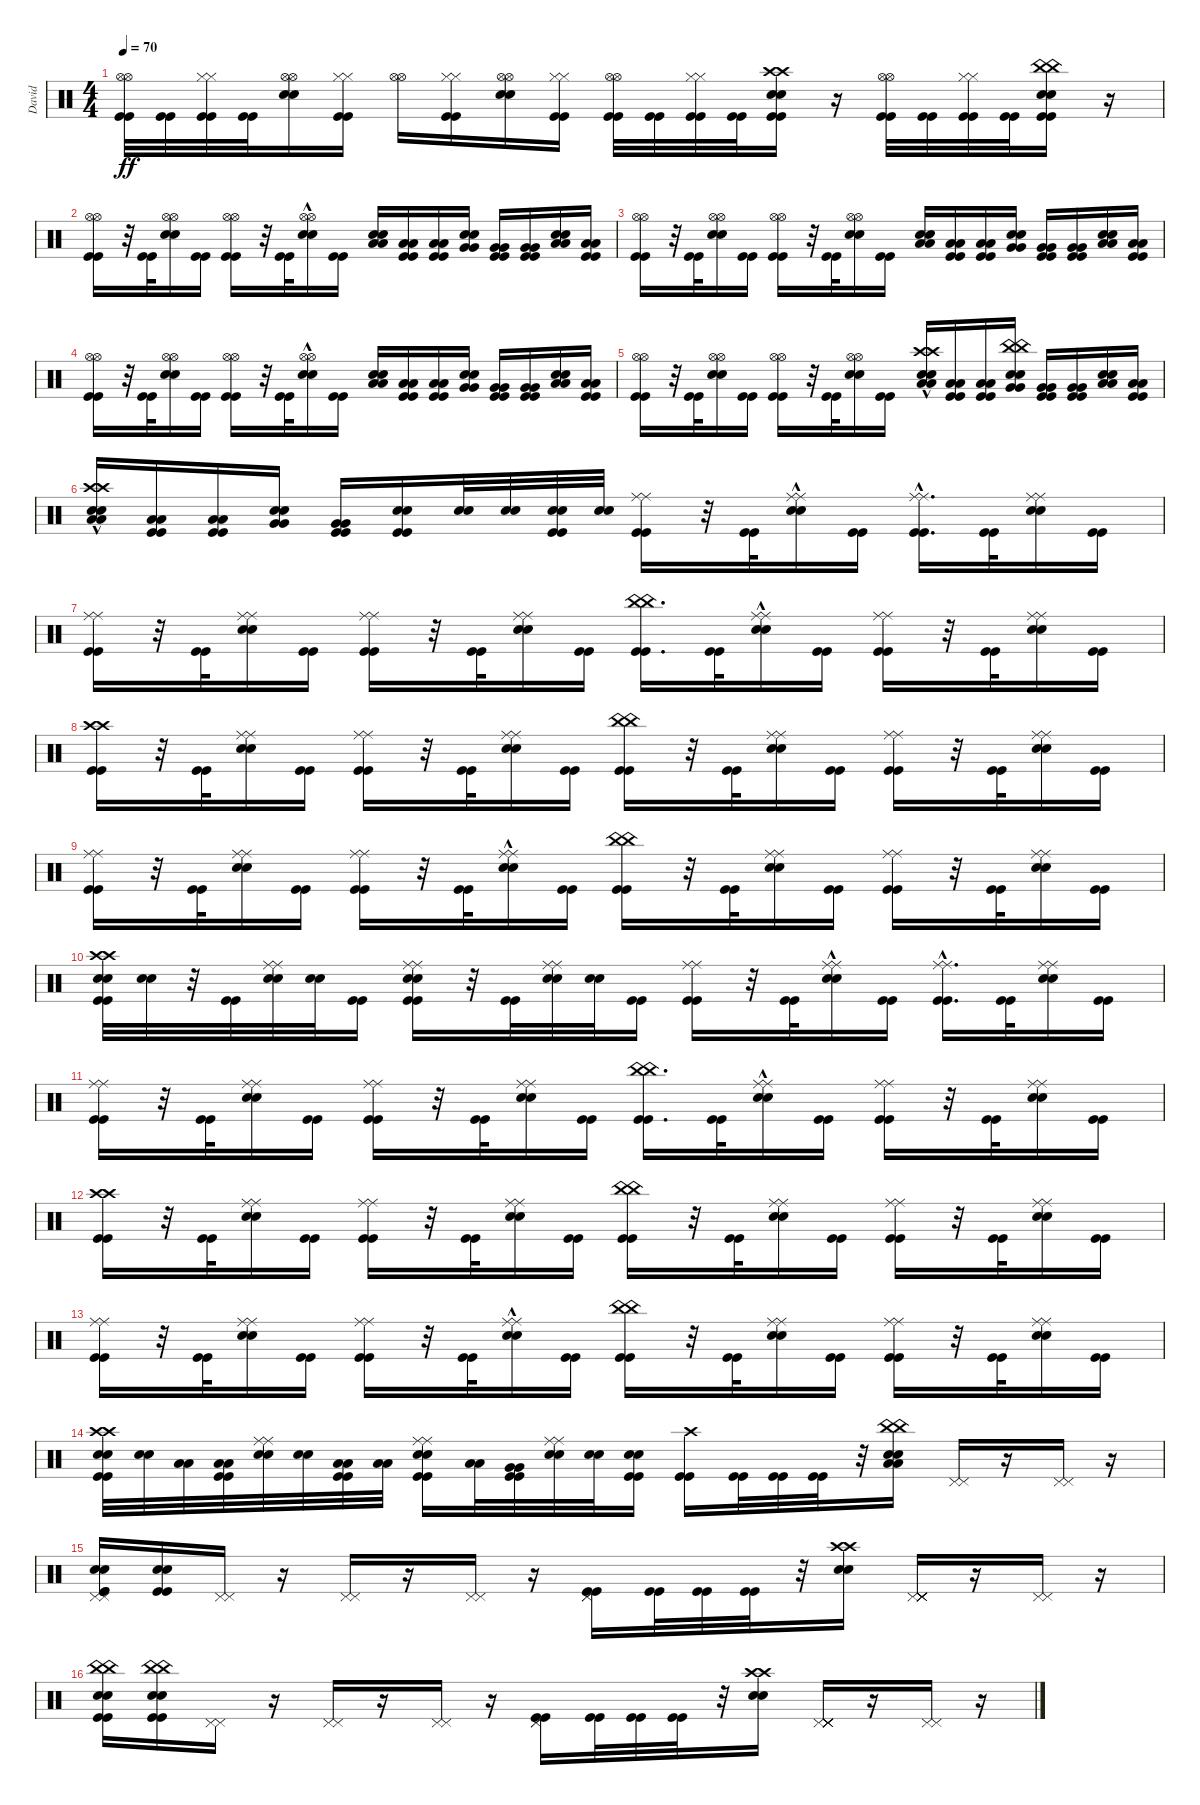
\track ("David" "David") {instrument percussion}
\staff {score}
\articulation defaults
\ts (4 4)
\tempo 70
\clef neutral
\ks c
("Kick (hit)" "Kick (hit)" "Hi-Hat (open)" "Hi-Hat (open)").32{dy ff} ("Kick (hit)" "Kick (hit)").32 ("Kick (hit)" "Kick (hit)" "Hi-Hat (closed)" "Hi-Hat (closed)").32 ("Kick (hit)" "Kick (hit)").32 ("Hi-Hat (open)" "Hi-Hat (open)" "Snare (hit) 2" "Snare (hit) 2").16 ("Kick (hit)" "Kick (hit)" "Hi-Hat (closed)" "Hi-Hat (closed)").16 ("Hi-Hat (open)" "Hi-Hat (open)").16 ("Kick (hit)" "Kick (hit)" "Hi-Hat (closed)" "Hi-Hat (closed)").16 ("Hi-Hat (open)" "Hi-Hat (open)" "Snare (hit) 2" "Snare (hit) 2").16 ("Hi-Hat (closed)" "Hi-Hat (closed)" "Kick (hit)" "Kick (hit)").16 ("Hi-Hat (open)" "Hi-Hat (open)" "Kick (hit)" "Kick (hit)").32 ("Kick (hit)" "Kick (hit)").32 ("Kick (hit)" "Kick (hit)" "Hi-Hat (closed)" "Hi-Hat (closed)").32 ("Kick (hit)" "Kick (hit)").32 ("Kick (hit)" "Kick (hit)" "Crash high (hit)" "Crash high (hit)" "Snare (hit) 2" "Snare (hit) 2").16 r.16 ("Hi-Hat (open)" "Hi-Hat (open)" "Kick (hit)" "Kick (hit)").32 ("Kick (hit)" "Kick (hit)").32 ("Hi-Hat (closed)" "Hi-Hat (closed)" "Kick (hit)" "Kick (hit)").32 ("Kick (hit)" "Kick (hit)").32 ("China (hit)" "China (hit)" "Kick (hit)" "Kick (hit)" "Snare (hit) 2" "Snare (hit) 2").16 r.16 |
("Kick (hit)" "Kick (hit)" "Hi-Hat (open)" "Hi-Hat (open)").16 r.32 ("Kick (hit)" "Kick (hit)").32 ("Snare (hit) 2" "Snare (hit) 2" "Hi-Hat (open)" "Hi-Hat (open)").16 ("Kick (hit)" "Kick (hit)").16 ("Kick (hit)" "Kick (hit)" "Hi-Hat (open)" "Hi-Hat (open)").16 r.32 ("Kick (hit)" "Kick (hit)").32 ("Snare (hit) 2" "Snare (hit) 2" "Hi-Hat (open)"{hac} "Hi-Hat (open)"{hac}).16 ("Kick (hit)" "Kick (hit)").16 ("Low Tom (hit)" "Low Tom (hit)" "Snare (hit) 2" "Snare (hit) 2").16 ("Low Tom (hit)" "Low Tom (hit)" "Kick (hit)" "Kick (hit)").16 ("Low Tom (hit)" "Low Tom (hit)" "Kick (hit)" "Kick (hit)").16 ("Very Low Tom (hit)" "Very Low Tom (hit)" "Snare (hit) 2" "Snare (hit) 2").16 ("Very Low Tom (hit)" "Very Low Tom (hit)" "Kick (hit)" "Kick (hit)").16 ("Very Low Tom (hit)" "Very Low Tom (hit)" "Kick (hit)" "Kick (hit)").16 ("Low Floor Tom (hit)" "Low Floor Tom (hit)" "Snare (hit) 2" "Snare (hit) 2").16 ("Low Floor Tom (hit)" "Low Floor Tom (hit)" "Kick (hit)" "Kick (hit)").16 |
("Kick (hit)" "Kick (hit)" "Hi-Hat (open)" "Hi-Hat (open)").16 r.32 ("Kick (hit)" "Kick (hit)").32 ("Snare (hit) 2" "Snare (hit) 2" "Hi-Hat (open)" "Hi-Hat (open)").16 ("Kick (hit)" "Kick (hit)").16 ("Kick (hit)" "Kick (hit)" "Hi-Hat (open)" "Hi-Hat (open)").16 r.32 ("Kick (hit)" "Kick (hit)").32 ("Snare (hit) 2" "Snare (hit) 2" "Hi-Hat (open)" "Hi-Hat (open)").16 ("Kick (hit)" "Kick (hit)").16 ("Low Tom (hit)" "Low Tom (hit)" "Snare (hit) 2" "Snare (hit) 2").16 ("Low Tom (hit)" "Low Tom (hit)" "Kick (hit)" "Kick (hit)").16 ("Low Tom (hit)" "Low Tom (hit)" "Kick (hit)" "Kick (hit)").16 ("Very Low Tom (hit)" "Very Low Tom (hit)" "Snare (hit) 2" "Snare (hit) 2").16 ("Very Low Tom (hit)" "Very Low Tom (hit)" "Kick (hit)" "Kick (hit)").16 ("Very Low Tom (hit)" "Very Low Tom (hit)" "Kick (hit)" "Kick (hit)").16 ("Low Floor Tom (hit)" "Low Floor Tom (hit)" "Snare (hit) 2" "Snare (hit) 2").16 ("Low Floor Tom (hit)" "Low Floor Tom (hit)" "Kick (hit)" "Kick (hit)").16 |
("Hi-Hat (open)" "Hi-Hat (open)" "Kick (hit)" "Kick (hit)").16 r.32 ("Kick (hit)" "Kick (hit)").32 ("Hi-Hat (open)" "Hi-Hat (open)" "Snare (hit) 2" "Snare (hit) 2").16 ("Kick (hit)" "Kick (hit)").16 ("Hi-Hat (open)" "Hi-Hat (open)" "Kick (hit)" "Kick (hit)").16 r.32 ("Kick (hit)" "Kick (hit)").32 ("Hi-Hat (open)"{hac} "Hi-Hat (open)"{hac} "Snare (hit) 2" "Snare (hit) 2").16 ("Kick (hit)" "Kick (hit)").16 ("Low Tom (hit)" "Low Tom (hit)" "Snare (hit) 2" "Snare (hit) 2").16 ("Low Tom (hit)" "Low Tom (hit)" "Kick (hit)" "Kick (hit)").16 ("Low Tom (hit)" "Low Tom (hit)" "Kick (hit)" "Kick (hit)").16 ("Very Low Tom (hit)" "Very Low Tom (hit)" "Snare (hit) 2" "Snare (hit) 2").16 ("Very Low Tom (hit)" "Very Low Tom (hit)" "Kick (hit)" "Kick (hit)").16 ("Very Low Tom (hit)" "Very Low Tom (hit)" "Kick (hit)" "Kick (hit)").16 ("Low Floor Tom (hit)" "Low Floor Tom (hit)" "Snare (hit) 2" "Snare (hit) 2").16 ("Low Floor Tom (hit)" "Low Floor Tom (hit)" "Kick (hit)" "Kick (hit)").16 |
("Hi-Hat (open)" "Hi-Hat (open)" "Kick (hit)" "Kick (hit)").16 r.32 ("Kick (hit)" "Kick (hit)").32 ("Hi-Hat (open)" "Hi-Hat (open)" "Snare (hit) 2" "Snare (hit) 2").16 ("Kick (hit)" "Kick (hit)").16 ("Hi-Hat (open)" "Hi-Hat (open)" "Kick (hit)" "Kick (hit)").16 r.32 ("Kick (hit)" "Kick (hit)").32 ("Hi-Hat (open)" "Hi-Hat (open)" "Snare (hit) 2" "Snare (hit) 2").16 ("Kick (hit)" "Kick (hit)").16 ("Crash high (hit)"{hac} "Crash high (hit)"{hac} "Low Tom (hit)" "Low Tom (hit)" "Snare (hit) 2" "Snare (hit) 2").16 ("Low Tom (hit)" "Low Tom (hit)" "Kick (hit)" "Kick (hit)").16 ("Low Tom (hit)" "Low Tom (hit)" "Kick (hit)" "Kick (hit)").16 ("China (hit)" "China (hit)" "Very Low Tom (hit)" "Very Low Tom (hit)" "Snare (hit) 2" "Snare (hit) 2").16 ("Very Low Tom (hit)" "Very Low Tom (hit)" "Kick (hit)" "Kick (hit)").16 ("Very Low Tom (hit)" "Very Low Tom (hit)" "Kick (hit)" "Kick (hit)").16 ("Low Floor Tom (hit)" "Low Floor Tom (hit)" "Snare (hit) 2" "Snare (hit) 2").16 ("Low Floor Tom (hit)" "Low Floor Tom (hit)" "Kick (hit)" "Kick (hit)").16 |
("Low Tom (hit)" "Low Tom (hit)" "Snare (hit) 2" "Snare (hit) 2" "Crash high (hit)"{hac} "Crash high (hit)"{hac}).16 ("Low Tom (hit)" "Low Tom (hit)" "Kick (hit)" "Kick (hit)").16 ("Low Tom (hit)" "Low Tom (hit)" "Kick (hit)" "Kick (hit)").16 ("Very Low Tom (hit)" "Very Low Tom (hit)" "Snare (hit) 2" "Snare (hit) 2").16 ("Very Low Tom (hit)" "Very Low Tom (hit)" "Kick (hit)" "Kick (hit)").16 ("Kick (hit)" "Kick (hit)" "Snare (hit) 2" "Snare (hit) 2").16 ("Snare (hit) 2" "Snare (hit) 2").32 ("Snare (hit) 2" "Snare (hit) 2").32 ("Kick (hit)" "Kick (hit)" "Snare (hit) 2" "Snare (hit) 2").32 ("Snare (hit) 2" "Snare (hit) 2").32 ("Kick (hit)" "Kick (hit)" "Ride (middle)" "Ride (middle)").16 r.32 ("Kick (hit)" "Kick (hit)").32 ("Ride (middle)" "Ride (middle)" "Snare (hit) 2"{hac} "Snare (hit) 2"{hac}).16 ("Kick (hit)" "Kick (hit)").16 ("Kick (hit)" "Kick (hit)" "Ride (middle)"{hac} "Ride (middle)"{hac}).16{d} ("Kick (hit)" "Kick (hit)").32 ("Ride (middle)" "Ride (middle)" "Snare (hit) 2" "Snare (hit) 2").16 ("Kick (hit)" "Kick (hit)").16 |
("Ride (middle)" "Ride (middle)" "Kick (hit)" "Kick (hit)").16 r.32 ("Kick (hit)" "Kick (hit)").32 ("Ride (middle)" "Ride (middle)" "Snare (hit) 2" "Snare (hit) 2").16 ("Kick (hit)" "Kick (hit)").16 ("Ride (middle)" "Ride (middle)" "Kick (hit)" "Kick (hit)").16 r.32 ("Kick (hit)" "Kick (hit)").32 ("Ride (middle)" "Ride (middle)" "Snare (hit) 2" "Snare (hit) 2").16 ("Kick (hit)" "Kick (hit)").16 ("China (hit)" "China (hit)" "Kick (hit)" "Kick (hit)").16{d} ("Kick (hit)" "Kick (hit)").32 ("Ride (middle)" "Ride (middle)" "Snare (hit) 2"{hac} "Snare (hit) 2"{hac}).16 ("Kick (hit)" "Kick (hit)").16 ("Ride (middle)" "Ride (middle)" "Kick (hit)" "Kick (hit)").16 r.32 ("Kick (hit)" "Kick (hit)").32 ("Ride (middle)" "Ride (middle)" "Snare (hit) 2" "Snare (hit) 2").16 ("Kick (hit)" "Kick (hit)").16 |
("Crash high (hit)" "Crash high (hit)" "Kick (hit)" "Kick (hit)").16 r.32 ("Kick (hit)" "Kick (hit)").32 ("Ride (middle)" "Ride (middle)" "Snare (hit) 2" "Snare (hit) 2").16 ("Kick (hit)" "Kick (hit)").16 ("Ride (middle)" "Ride (middle)" "Kick (hit)" "Kick (hit)").16 r.32 ("Kick (hit)" "Kick (hit)").32 ("Ride (middle)" "Ride (middle)" "Snare (hit) 2" "Snare (hit) 2").16 ("Kick (hit)" "Kick (hit)").16 ("China (hit)" "China (hit)" "Kick (hit)" "Kick (hit)").16 r.32 ("Kick (hit)" "Kick (hit)").32 ("Ride (middle)" "Ride (middle)" "Snare (hit) 2" "Snare (hit) 2").16 ("Kick (hit)" "Kick (hit)").16 ("Ride (middle)" "Ride (middle)" "Kick (hit)" "Kick (hit)").16 r.32 ("Kick (hit)" "Kick (hit)").32 ("Snare (hit) 2" "Snare (hit) 2" "Ride (middle)" "Ride (middle)").16 ("Kick (hit)" "Kick (hit)").16 |
("Kick (hit)" "Kick (hit)" "Ride (middle)" "Ride (middle)").16 r.32 ("Kick (hit)" "Kick (hit)").32 ("Snare (hit) 2" "Snare (hit) 2" "Ride (middle)" "Ride (middle)").16 ("Kick (hit)" "Kick (hit)").16 ("Ride (middle)" "Ride (middle)" "Kick (hit)" "Kick (hit)").16 r.32 ("Kick (hit)" "Kick (hit)").32 ("Ride (middle)" "Ride (middle)" "Snare (hit) 2"{hac} "Snare (hit) 2"{hac}).16 ("Kick (hit)" "Kick (hit)").16 ("China (hit)" "China (hit)" "Kick (hit)" "Kick (hit)").16 r.32 ("Kick (hit)" "Kick (hit)").32 ("Ride (middle)" "Ride (middle)" "Snare (hit) 2" "Snare (hit) 2").16 ("Kick (hit)" "Kick (hit)").16 ("Kick (hit)" "Kick (hit)" "Ride (middle)" "Ride (middle)").16 r.32 ("Kick (hit)" "Kick (hit)").32 ("Snare (hit) 2" "Snare (hit) 2" "Ride (middle)" "Ride (middle)").16 ("Kick (hit)" "Kick (hit)").16 |
("Snare (hit) 2" "Snare (hit) 2" "Kick (hit)" "Kick (hit)" "Crash high (hit)" "Crash high (hit)").32 ("Snare (hit) 2" "Snare (hit) 2").32 r.32 ("Kick (hit)" "Kick (hit)").32 ("Ride (middle)" "Ride (middle)" "Snare (hit) 2" "Snare (hit) 2").32 ("Snare (hit) 2" "Snare (hit) 2").32 ("Kick (hit)" "Kick (hit)").16 ("Kick (hit)" "Kick (hit)" "Ride (middle)" "Ride (middle)" "Snare (hit) 2" "Snare (hit) 2").16 r.32 ("Kick (hit)" "Kick (hit)").32 ("Ride (middle)" "Ride (middle)" "Snare (hit) 2" "Snare (hit) 2").32 ("Snare (hit) 2" "Snare (hit) 2").32 ("Kick (hit)" "Kick (hit)").16 ("Ride (middle)" "Ride (middle)" "Kick (hit)" "Kick (hit)").16 r.32 ("Kick (hit)" "Kick (hit)").32 ("Snare (hit) 2"{hac} "Snare (hit) 2"{hac} "Ride (middle)" "Ride (middle)").16 ("Kick (hit)" "Kick (hit)").16 ("Ride (middle)"{hac} "Ride (middle)"{hac} "Kick (hit)" "Kick (hit)").16{d} ("Kick (hit)" "Kick (hit)").32 ("Snare (hit) 2" "Snare (hit) 2" "Ride (middle)" "Ride (middle)").16 ("Kick (hit)" "Kick (hit)").16 |
("Kick (hit)" "Kick (hit)" "Ride (middle)" "Ride (middle)").16 r.32 ("Kick (hit)" "Kick (hit)").32 ("Snare (hit) 2" "Snare (hit) 2" "Ride (middle)" "Ride (middle)").16 ("Kick (hit)" "Kick (hit)").16 ("Kick (hit)" "Kick (hit)" "Ride (middle)" "Ride (middle)").16 r.32 ("Kick (hit)" "Kick (hit)").32 ("Snare (hit) 2" "Snare (hit) 2" "Ride (middle)" "Ride (middle)").16 ("Kick (hit)" "Kick (hit)").16 ("Kick (hit)" "Kick (hit)" "China (hit)" "China (hit)").16{d} ("Kick (hit)" "Kick (hit)").32 ("Snare (hit) 2"{hac} "Snare (hit) 2"{hac} "Ride (middle)" "Ride (middle)").16 ("Kick (hit)" "Kick (hit)").16 ("Kick (hit)" "Kick (hit)" "Ride (middle)" "Ride (middle)").16 r.32 ("Kick (hit)" "Kick (hit)").32 ("Snare (hit) 2" "Snare (hit) 2" "Ride (middle)" "Ride (middle)").16 ("Kick (hit)" "Kick (hit)").16 |
("Kick (hit)" "Kick (hit)" "Crash high (hit)" "Crash high (hit)").16 r.32 ("Kick (hit)" "Kick (hit)").32 ("Snare (hit) 2" "Snare (hit) 2" "Ride (middle)" "Ride (middle)").16 ("Kick (hit)" "Kick (hit)").16 ("Kick (hit)" "Kick (hit)" "Ride (middle)" "Ride (middle)").16 r.32 ("Kick (hit)" "Kick (hit)").32 ("Snare (hit) 2" "Snare (hit) 2" "Ride (middle)" "Ride (middle)").16 ("Kick (hit)" "Kick (hit)").16 ("Kick (hit)" "Kick (hit)" "China (hit)" "China (hit)").16 r.32 ("Kick (hit)" "Kick (hit)").32 ("Snare (hit) 2" "Snare (hit) 2" "Ride (middle)" "Ride (middle)").16 ("Kick (hit)" "Kick (hit)").16 ("Kick (hit)" "Kick (hit)" "Ride (middle)" "Ride (middle)").16 r.32 ("Kick (hit)" "Kick (hit)").32 ("Ride (middle)" "Ride (middle)" "Snare (hit) 2" "Snare (hit) 2").16 ("Kick (hit)" "Kick (hit)").16 |
("Ride (middle)" "Ride (middle)" "Kick (hit)" "Kick (hit)").16 r.32 ("Kick (hit)" "Kick (hit)").32 ("Ride (middle)" "Ride (middle)" "Snare (hit) 2" "Snare (hit) 2").16 ("Kick (hit)" "Kick (hit)").16 ("Kick (hit)" "Kick (hit)" "Ride (middle)" "Ride (middle)").16 r.32 ("Kick (hit)" "Kick (hit)").32 ("Snare (hit) 2"{hac} "Snare (hit) 2"{hac} "Ride (middle)" "Ride (middle)").16 ("Kick (hit)" "Kick (hit)").16 ("Kick (hit)" "Kick (hit)" "China (hit)" "China (hit)").16 r.32 ("Kick (hit)" "Kick (hit)").32 ("Snare (hit) 2" "Snare (hit) 2" "Ride (middle)" "Ride (middle)").16 ("Kick (hit)" "Kick (hit)").16 ("Ride (middle)" "Ride (middle)" "Kick (hit)" "Kick (hit)").16 r.32 ("Kick (hit)" "Kick (hit)").32 ("Ride (middle)" "Ride (middle)" "Snare (hit) 2" "Snare (hit) 2").16 ("Kick (hit)" "Kick (hit)").16 |
("Snare (hit) 2" "Snare (hit) 2" "Kick (hit)" "Kick (hit)" "Crash high (hit)" "Crash high (hit)").32 ("Snare (hit) 2" "Snare (hit) 2").32 ("Low Floor Tom (hit)" "Low Floor Tom (hit)").32 ("Kick (hit)" "Kick (hit)" "Low Floor Tom (hit)" "Low Floor Tom (hit)").32 ("Snare (hit) 2" "Snare (hit) 2" "Ride (middle)" "Ride (middle)").32 ("Snare (hit) 2" "Snare (hit) 2").32 ("Kick (hit)" "Kick (hit)" "Low Floor Tom (hit)" "Low Floor Tom (hit)").32 ("Low Floor Tom (hit)" "Low Floor Tom (hit)").32 ("Kick (hit)" "Kick (hit)" "Snare (hit) 2" "Snare (hit) 2" "Ride (middle)" "Ride (middle)").16 ("Low Floor Tom (hit)" "Low Floor Tom (hit)").32 ("Kick (hit)" "Kick (hit)" "Very Low Tom (hit)" "Very Low Tom (hit)").32 ("Snare (hit) 2" "Snare (hit) 2" "Ride (middle)" "Ride (middle)").32 ("Snare (hit) 2" "Snare (hit) 2").32 ("Kick (hit)" "Kick (hit)" "Snare (hit) 2" "Snare (hit) 2").16 ("Kick (hit)" "Kick (hit)" "Crash high (hit)").16 ("Kick (hit)" "Kick (hit)").32 ("Kick (hit)" "Kick (hit)").32 ("Kick (hit)" "Kick (hit)").32 r.32 ("Snare (hit) 2" "Snare (hit) 2" "Low Tom (hit)" "Low Tom (hit)" "China (hit)" "China (hit)").16 ("Pedal Hi-Hat (hit)" "Pedal Hi-Hat (hit)").16 r.16 ("Pedal Hi-Hat (hit)" "Pedal Hi-Hat (hit)").16 r.16 |
("Pedal Hi-Hat (hit)" "Pedal Hi-Hat (hit)" "Kick (hit)" "Kick (hit)" "Snare (hit) 2" "Snare (hit) 2").16 ("Kick (hit)" "Kick (hit)" "Snare (hit) 2" "Snare (hit) 2").16 ("Pedal Hi-Hat (hit)" "Pedal Hi-Hat (hit)").16 r.16 ("Pedal Hi-Hat (hit)" "Pedal Hi-Hat (hit)").16 r.16 ("Pedal Hi-Hat (hit)" "Pedal Hi-Hat (hit)").16 r.16 ("Pedal Hi-Hat (hit)" "Pedal Hi-Hat (hit)" "Kick (hit)" "Kick (hit)").16 ("Kick (hit)" "Kick (hit)").32 ("Kick (hit)" "Kick (hit)").32 ("Kick (hit)" "Kick (hit)").32 r.32 ("Snare (hit) 2" "Snare (hit) 2" "Crash high (hit)" "Crash high (hit)").16 ("Pedal Hi-Hat (hit)" "Pedal Hi-Hat (hit)" "Pedal Hi-Hat (hit)" "Pedal Hi-Hat (hit)" "Pedal Hi-Hat (hit)" "Pedal Hi-Hat (hit)").16 r.16 ("Pedal Hi-Hat (hit)" "Pedal Hi-Hat (hit)").16 r.16 |
("China (hit)" "China (hit)" "Kick (hit)" "Kick (hit)" "Snare (hit) 2" "Snare (hit) 2").16 ("China (hit)" "China (hit)" "Kick (hit)" "Kick (hit)" "Snare (hit) 2" "Snare (hit) 2").16 ("Pedal Hi-Hat (hit)" "Pedal Hi-Hat (hit)").16 r.16 ("Pedal Hi-Hat (hit)" "Pedal Hi-Hat (hit)").16 r.16 ("Pedal Hi-Hat (hit)" "Pedal Hi-Hat (hit)").16 r.16 ("Kick (hit)" "Kick (hit)" "Pedal Hi-Hat (hit)" "Pedal Hi-Hat (hit)").16 ("Kick (hit)" "Kick (hit)").32 ("Kick (hit)" "Kick (hit)").32 ("Kick (hit)" "Kick (hit)").32 r.32 ("Crash high (hit)" "Crash high (hit)" "Snare (hit) 2" "Snare (hit) 2").16 ("Pedal Hi-Hat (hit)" "Pedal Hi-Hat (hit)" "Pedal Hi-Hat (hit)" "Pedal Hi-Hat (hit)" "Pedal Hi-Hat (hit)" "Pedal Hi-Hat (hit)").16 r.16 ("Pedal Hi-Hat (hit)" "Pedal Hi-Hat (hit)").16 r.16
